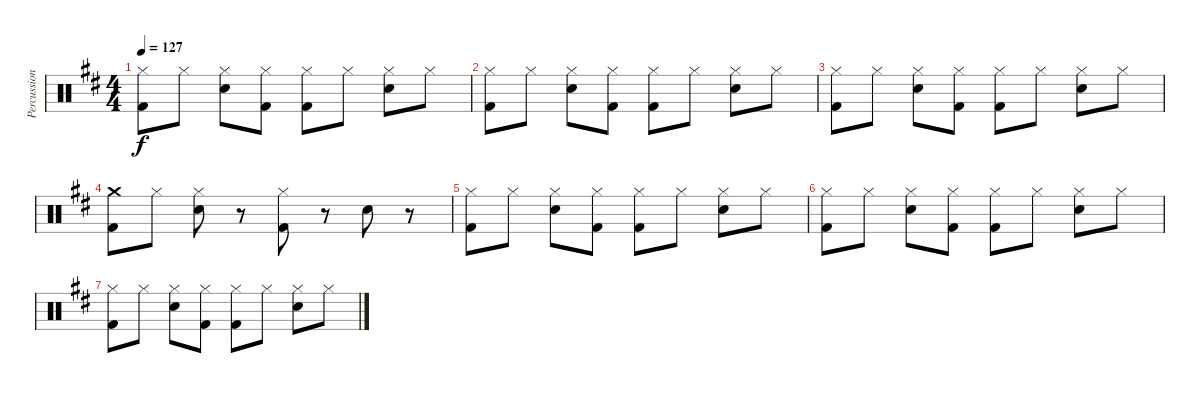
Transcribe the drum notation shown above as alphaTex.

\track ("Percussion" "Percussion") {instrument percussion}
\staff {score}
\articulation defaults
\ts (4 4)
\tempo 127
\clef neutral
\ks d
("Hi-Hat (closed)" "Kick (hit) 2").8{dy f} "Hi-Hat (closed)".8 ("Hi-Hat (closed)" "Electric Snare (hit)").8 ("Hi-Hat (closed)" "Kick (hit) 2").8 ("Hi-Hat (closed)" "Kick (hit) 2").8 "Hi-Hat (closed)".8 ("Hi-Hat (closed)" "Electric Snare (hit)").8 "Hi-Hat (closed)".8 |
("Hi-Hat (closed)" "Kick (hit) 2").8 "Hi-Hat (closed)".8 ("Hi-Hat (closed)" "Electric Snare (hit)").8 ("Hi-Hat (closed)" "Kick (hit) 2").8 ("Hi-Hat (closed)" "Kick (hit) 2").8 "Hi-Hat (closed)".8 ("Hi-Hat (closed)" "Electric Snare (hit)").8 "Hi-Hat (closed)".8 |
("Hi-Hat (closed)" "Kick (hit) 2").8 "Hi-Hat (closed)".8 ("Hi-Hat (closed)" "Electric Snare (hit)").8 ("Hi-Hat (closed)" "Kick (hit) 2").8 ("Hi-Hat (closed)" "Kick (hit) 2").8 "Hi-Hat (closed)".8 ("Hi-Hat (closed)" "Electric Snare (hit)").8 "Hi-Hat (closed)".8 |
("Crash medium (hit)" "Kick (hit) 2").8 "Hi-Hat (closed)".8 ("Hi-Hat (closed)" "Electric Snare (hit)").8 r.8 ("Hi-Hat (closed)" "Kick (hit) 2").8 r.8 "Electric Snare (hit)".8 r.8 |
("Hi-Hat (closed)" "Kick (hit) 2").8 "Hi-Hat (closed)".8 ("Hi-Hat (closed)" "Electric Snare (hit)").8 ("Hi-Hat (closed)" "Kick (hit) 2").8 ("Hi-Hat (closed)" "Kick (hit) 2").8 "Hi-Hat (closed)".8 ("Hi-Hat (closed)" "Electric Snare (hit)").8 "Hi-Hat (closed)".8 |
("Hi-Hat (closed)" "Kick (hit) 2").8 "Hi-Hat (closed)".8 ("Hi-Hat (closed)" "Electric Snare (hit)").8 ("Hi-Hat (closed)" "Kick (hit) 2").8 ("Hi-Hat (closed)" "Kick (hit) 2").8 "Hi-Hat (closed)".8 ("Hi-Hat (closed)" "Electric Snare (hit)").8 "Hi-Hat (closed)".8 |
("Hi-Hat (closed)" "Kick (hit) 2").8 "Hi-Hat (closed)".8 ("Hi-Hat (closed)" "Electric Snare (hit)").8 ("Hi-Hat (closed)" "Kick (hit) 2").8 ("Hi-Hat (closed)" "Kick (hit) 2").8 "Hi-Hat (closed)".8 ("Hi-Hat (closed)" "Electric Snare (hit)").8 "Hi-Hat (closed)".8
